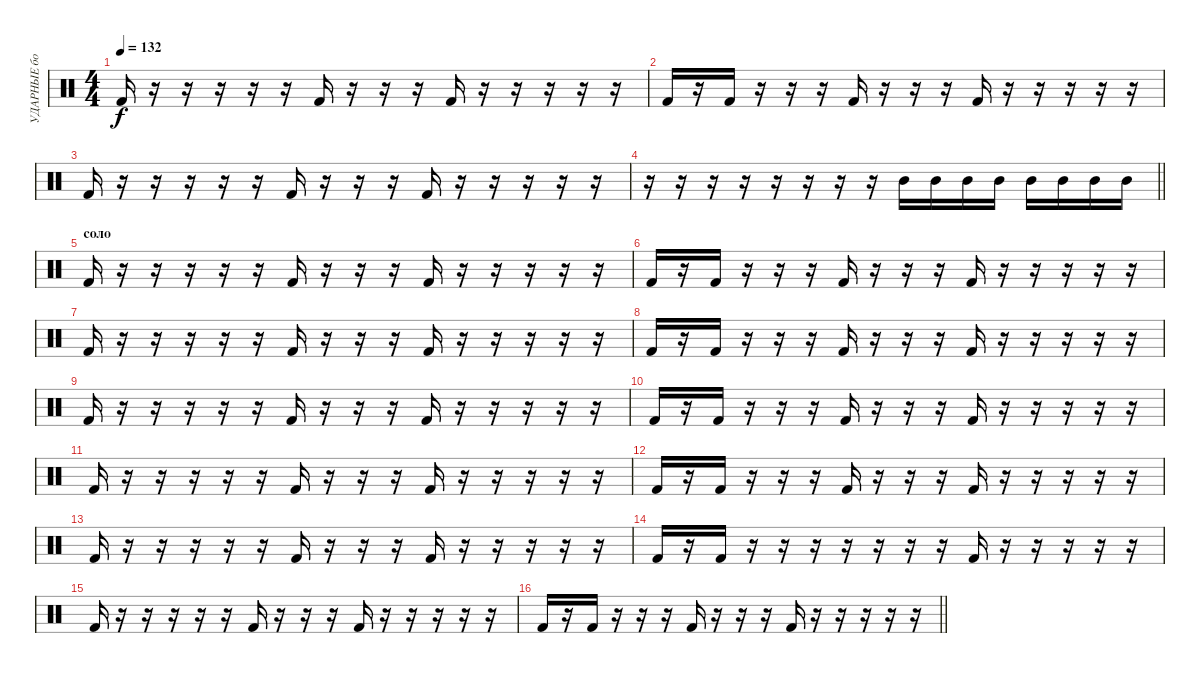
\track ("УДАРНЫЕ бочка" "УДАРНЫЕ бо") {instrument percussion}
\staff {score}
\articulation defaults
\ts (4 4)
\tempo 132
\clef neutral
\ks c "Kick (hit) 2".16{dy f}
r.16 r.16 r.16 r.16 r.16 "Kick (hit) 2".16 r.16 r.16 r.16 "Kick (hit) 2".16 r.16 r.16 r.16 r.16 r.16 |
"Kick (hit) 2".16 r.16 "Kick (hit) 2".16 r.16 r.16 r.16 "Kick (hit) 2".16 r.16 r.16 r.16 "Kick (hit) 2".16 r.16 r.16 r.16 r.16 r.16 |
"Kick (hit) 2".16 r.16 r.16 r.16 r.16 r.16 "Kick (hit) 2".16 r.16 r.16 r.16 "Kick (hit) 2".16 r.16 r.16 r.16 r.16 r.16 |
\barLineRight lightlight
r.16 r.16 r.16 r.16 r.16 r.16 r.16 r.16 "Mid Tom (hit)".16 "Mid Tom (hit)".16 "Mid Tom (hit)".16 "Mid Tom (hit)".16 "Mid Tom (hit)".16 "Mid Tom (hit)".16 "Mid Tom (hit)".16 "Mid Tom (hit)".16 |
\section ("" "соло")
"Kick (hit) 2".16 r.16 r.16 r.16 r.16 r.16 "Kick (hit) 2".16 r.16 r.16 r.16 "Kick (hit) 2".16 r.16 r.16 r.16 r.16 r.16 |
"Kick (hit) 2".16 r.16 "Kick (hit) 2".16 r.16 r.16 r.16 "Kick (hit) 2".16 r.16 r.16 r.16 "Kick (hit) 2".16 r.16 r.16 r.16 r.16 r.16 |
"Kick (hit) 2".16 r.16 r.16 r.16 r.16 r.16 "Kick (hit) 2".16 r.16 r.16 r.16 "Kick (hit) 2".16 r.16 r.16 r.16 r.16 r.16 |
"Kick (hit) 2".16 r.16 "Kick (hit) 2".16 r.16 r.16 r.16 "Kick (hit) 2".16 r.16 r.16 r.16 "Kick (hit) 2".16 r.16 r.16 r.16 r.16 r.16 |
"Kick (hit) 2".16 r.16 r.16 r.16 r.16 r.16 "Kick (hit) 2".16 r.16 r.16 r.16 "Kick (hit) 2".16 r.16 r.16 r.16 r.16 r.16 |
"Kick (hit) 2".16 r.16 "Kick (hit) 2".16 r.16 r.16 r.16 "Kick (hit) 2".16 r.16 r.16 r.16 "Kick (hit) 2".16 r.16 r.16 r.16 r.16 r.16 |
"Kick (hit) 2".16 r.16 r.16 r.16 r.16 r.16 "Kick (hit) 2".16 r.16 r.16 r.16 "Kick (hit) 2".16 r.16 r.16 r.16 r.16 r.16 |
"Kick (hit) 2".16 r.16 "Kick (hit) 2".16 r.16 r.16 r.16 "Kick (hit) 2".16 r.16 r.16 r.16 "Kick (hit) 2".16 r.16 r.16 r.16 r.16 r.16 |
"Kick (hit) 2".16 r.16 r.16 r.16 r.16 r.16 "Kick (hit) 2".16 r.16 r.16 r.16 "Kick (hit) 2".16 r.16 r.16 r.16 r.16 r.16 |
"Kick (hit) 2".16 r.16 "Kick (hit) 2".16 r.16 r.16 r.16 r.16 r.16 r.16 r.16 "Kick (hit) 2".16 r.16 r.16 r.16 r.16 r.16 |
"Kick (hit) 2".16 r.16 r.16 r.16 r.16 r.16 "Kick (hit) 2".16 r.16 r.16 r.16 "Kick (hit) 2".16 r.16 r.16 r.16 r.16 r.16 |
\barLineRight lightlight "Kick (hit) 2".16
r.16 "Kick (hit) 2".16 r.16 r.16 r.16 "Kick (hit) 2".16 r.16 r.16 r.16 "Kick (hit) 2".16 r.16 r.16 r.16 r.16 r.16
